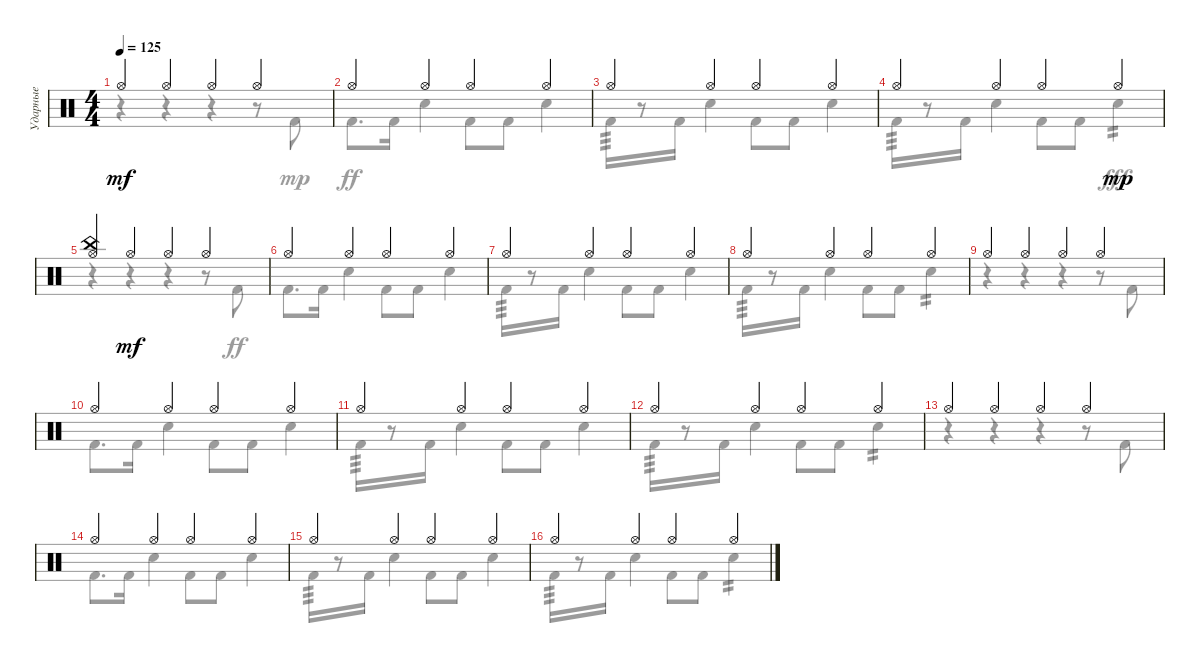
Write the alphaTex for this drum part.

\track ("Ударные" "Ударные") {instrument percussion}
\staff {score}
\articulation defaults
\voice
\ts (4 4)
\tempo 125
\clef neutral
\ks c "Hi-Hat (open)".4{dy mf volume 14} "Hi-Hat (open)".4 "Hi-Hat (open)".4 "Hi-Hat (open)".4
|
"Hi-Hat (open)".4 "Hi-Hat (open)".4 "Hi-Hat (open)".4 "Hi-Hat (open)".4 |
"Hi-Hat (open)".4 "Hi-Hat (open)".4 "Hi-Hat (open)".4 "Hi-Hat (open)".4 |
"Hi-Hat (open)".4 "Hi-Hat (open)".4 "Hi-Hat (open)".4 "Hi-Hat (open)".4{dy mp volume 16} |
("Hi-Hat (open)" "China (hit)").4{volume 14} "Hi-Hat (open)".4{dy mf} "Hi-Hat (open)".4 "Hi-Hat (open)".4 |
"Hi-Hat (open)".4 "Hi-Hat (open)".4 "Hi-Hat (open)".4 "Hi-Hat (open)".4 |
"Hi-Hat (open)".4 "Hi-Hat (open)".4 "Hi-Hat (open)".4 "Hi-Hat (open)".4 |
"Hi-Hat (open)".4 "Hi-Hat (open)".4 "Hi-Hat (open)".4 "Hi-Hat (open)".4 |
"Hi-Hat (open)".4 "Hi-Hat (open)".4 "Hi-Hat (open)".4 "Hi-Hat (open)".4 |
"Hi-Hat (open)".4 "Hi-Hat (open)".4 "Hi-Hat (open)".4 "Hi-Hat (open)".4 |
"Hi-Hat (open)".4 "Hi-Hat (open)".4 "Hi-Hat (open)".4 "Hi-Hat (open)".4 |
"Hi-Hat (open)".4 "Hi-Hat (open)".4 "Hi-Hat (open)".4 "Hi-Hat (open)".4 |
"Hi-Hat (open)".4 "Hi-Hat (open)".4 "Hi-Hat (open)".4 "Hi-Hat (open)".4 |
"Hi-Hat (open)".4 "Hi-Hat (open)".4 "Hi-Hat (open)".4 "Hi-Hat (open)".4 |
"Hi-Hat (open)".4 "Hi-Hat (open)".4 "Hi-Hat (open)".4 "Hi-Hat (open)".4 |
"Hi-Hat (open)".4 "Hi-Hat (open)".4 "Hi-Hat (open)".4 "Hi-Hat (open)".4
\voice
\clef neutral
\ottava regular
\simile none
\ks c
r.4{dy f} r.4 r.4 r.8 "Kick (hit) 2".8{dy mp} |
"Kick (hit) 2".8{d dy ff} "Kick (hit) 2".16 "Electric Snare (hit)".4 "Kick (hit) 2".8 "Kick (hit) 2".8 "Electric Snare (hit)".4 |
"Kick (hit) 2".16{tp 3} r.8 "Kick (hit) 2".16 "Electric Snare (hit)".4 "Kick (hit) 2".8 "Kick (hit) 2".8 "Electric Snare (hit)".4 |
"Kick (hit) 2".16{tp 3} r.8 "Kick (hit) 2".16 "Electric Snare (hit)".4 "Kick (hit) 2".8 "Kick (hit) 2".8 "Electric Snare (hit)".4{tp 2 dy fff} |
r.4 r.4 r.4 r.8 "Kick (hit) 2".8{dy ff} |
"Kick (hit) 2".8{d} "Kick (hit) 2".16 "Electric Snare (hit)".4 "Kick (hit) 2".8 "Kick (hit) 2".8 "Electric Snare (hit)".4 |
"Kick (hit) 2".16{tp 3} r.8 "Kick (hit) 2".16 "Electric Snare (hit)".4 "Kick (hit) 2".8 "Kick (hit) 2".8 "Electric Snare (hit)".4 |
"Kick (hit) 2".16{tp 3} r.8 "Kick (hit) 2".16 "Electric Snare (hit)".4 "Kick (hit) 2".8 "Kick (hit) 2".8 "Electric Snare (hit)".4{tp 2} |
r.4 r.4 r.4 r.8 "Kick (hit) 2".8 |
"Kick (hit) 2".8{d} "Kick (hit) 2".16 "Electric Snare (hit)".4 "Kick (hit) 2".8 "Kick (hit) 2".8 "Electric Snare (hit)".4 |
"Kick (hit) 2".16{tp 3} r.8 "Kick (hit) 2".16 "Electric Snare (hit)".4 "Kick (hit) 2".8 "Kick (hit) 2".8 "Electric Snare (hit)".4 |
"Kick (hit) 2".16{tp 3} r.8 "Kick (hit) 2".16 "Electric Snare (hit)".4 "Kick (hit) 2".8 "Kick (hit) 2".8 "Electric Snare (hit)".4{tp 2} |
r.4 r.4 r.4 r.8 "Kick (hit) 2".8 |
"Kick (hit) 2".8{d} "Kick (hit) 2".16 "Electric Snare (hit)".4 "Kick (hit) 2".8 "Kick (hit) 2".8 "Electric Snare (hit)".4 |
"Kick (hit) 2".16{tp 3} r.8 "Kick (hit) 2".16 "Electric Snare (hit)".4 "Kick (hit) 2".8 "Kick (hit) 2".8 "Electric Snare (hit)".4 |
"Kick (hit) 2".16{tp 3} r.8 "Kick (hit) 2".16 "Electric Snare (hit)".4 "Kick (hit) 2".8 "Kick (hit) 2".8 "Electric Snare (hit)".4{tp 2}
